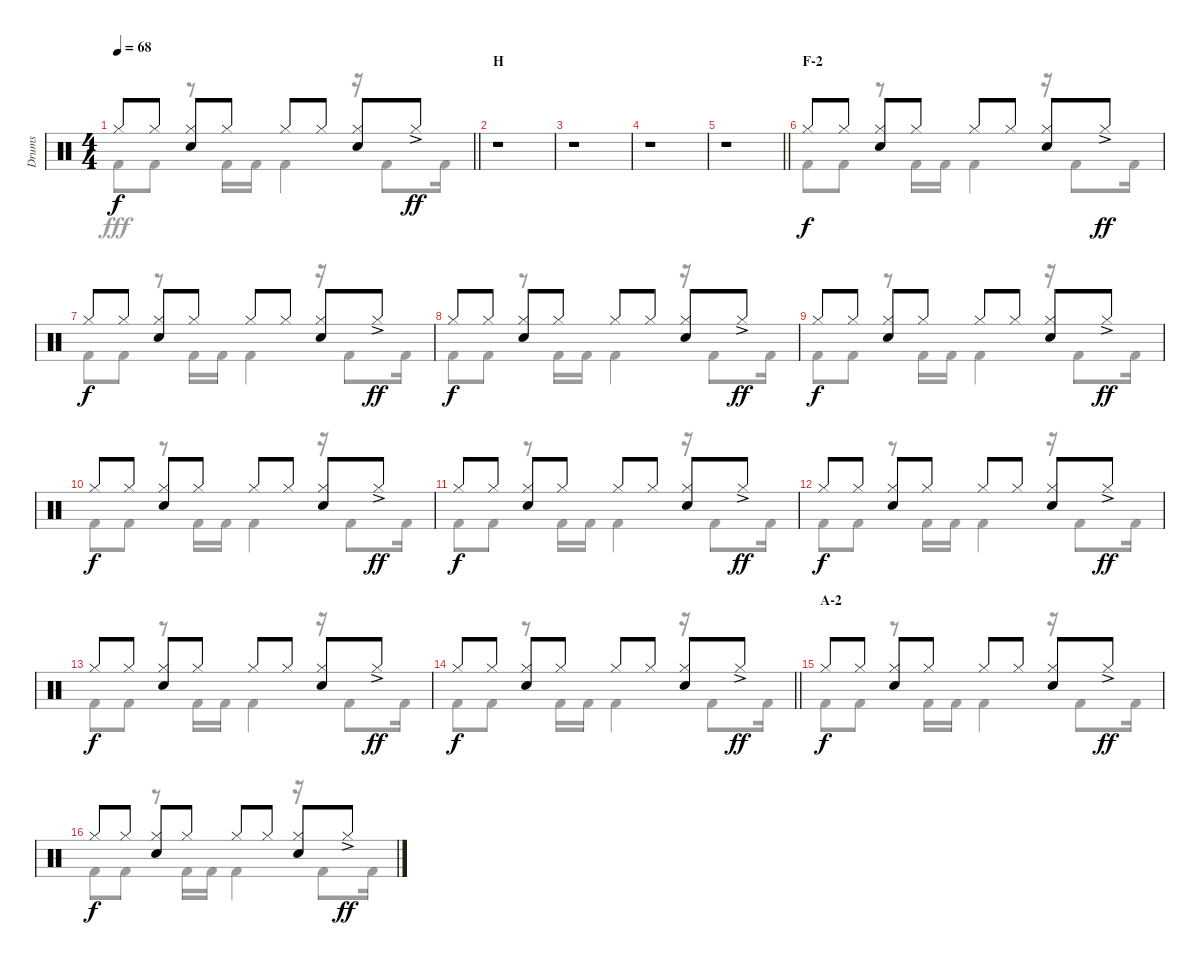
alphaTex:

\track ("Drums" "Drums") {instrument percussion}
\staff {score}
\articulation defaults
\voice
\ts (4 4)
\tempo 68
\clef neutral
\barLineRight lightlight
\ks c "Hi-Hat (closed)".8{dy f} "Hi-Hat (closed)".8
("Hi-Hat (closed)" "Snare (hit) 2").8 "Hi-Hat (closed)".8 "Hi-Hat (closed)".8 "Hi-Hat (closed)".8 ("Hi-Hat (closed)" "Snare (hit) 2").8 "Hi-Hat (closed)"{ac}.8{dy ff} |
\section ("" "H")
r.1 |
r.1 |
r.1 |
\barLineRight lightlight
r.1 |
\section ("" "F-2")
"Hi-Hat (closed)".8{dy f} "Hi-Hat (closed)".8 ("Hi-Hat (closed)" "Snare (hit) 2").8 "Hi-Hat (closed)".8 "Hi-Hat (closed)".8 "Hi-Hat (closed)".8 ("Hi-Hat (closed)" "Snare (hit) 2").8 "Hi-Hat (closed)"{ac}.8{dy ff} |
"Hi-Hat (closed)".8{dy f} "Hi-Hat (closed)".8 ("Hi-Hat (closed)" "Snare (hit) 2").8 "Hi-Hat (closed)".8 "Hi-Hat (closed)".8 "Hi-Hat (closed)".8 ("Hi-Hat (closed)" "Snare (hit) 2").8 "Hi-Hat (closed)"{ac}.8{dy ff} |
"Hi-Hat (closed)".8{dy f} "Hi-Hat (closed)".8 ("Hi-Hat (closed)" "Snare (hit) 2").8 "Hi-Hat (closed)".8 "Hi-Hat (closed)".8 "Hi-Hat (closed)".8 ("Hi-Hat (closed)" "Snare (hit) 2").8 "Hi-Hat (closed)"{ac}.8{dy ff} |
"Hi-Hat (closed)".8{dy f} "Hi-Hat (closed)".8 ("Hi-Hat (closed)" "Snare (hit) 2").8 "Hi-Hat (closed)".8 "Hi-Hat (closed)".8 "Hi-Hat (closed)".8 ("Hi-Hat (closed)" "Snare (hit) 2").8 "Hi-Hat (closed)"{ac}.8{dy ff} |
"Hi-Hat (closed)".8{dy f} "Hi-Hat (closed)".8 ("Hi-Hat (closed)" "Snare (hit) 2").8 "Hi-Hat (closed)".8 "Hi-Hat (closed)".8 "Hi-Hat (closed)".8 ("Hi-Hat (closed)" "Snare (hit) 2").8 "Hi-Hat (closed)"{ac}.8{dy ff} |
"Hi-Hat (closed)".8{dy f} "Hi-Hat (closed)".8 ("Hi-Hat (closed)" "Snare (hit) 2").8 "Hi-Hat (closed)".8 "Hi-Hat (closed)".8 "Hi-Hat (closed)".8 ("Hi-Hat (closed)" "Snare (hit) 2").8 "Hi-Hat (closed)"{ac}.8{dy ff} |
"Hi-Hat (closed)".8{dy f} "Hi-Hat (closed)".8 ("Hi-Hat (closed)" "Snare (hit) 2").8 "Hi-Hat (closed)".8 "Hi-Hat (closed)".8 "Hi-Hat (closed)".8 ("Hi-Hat (closed)" "Snare (hit) 2").8 "Hi-Hat (closed)"{ac}.8{dy ff} |
"Hi-Hat (closed)".8{dy f} "Hi-Hat (closed)".8 ("Hi-Hat (closed)" "Snare (hit) 2").8 "Hi-Hat (closed)".8 "Hi-Hat (closed)".8 "Hi-Hat (closed)".8 ("Hi-Hat (closed)" "Snare (hit) 2").8 "Hi-Hat (closed)"{ac}.8{dy ff} |
\barLineRight lightlight "Hi-Hat (closed)".8{dy f} "Hi-Hat (closed)".8
("Hi-Hat (closed)" "Snare (hit) 2").8 "Hi-Hat (closed)".8 "Hi-Hat (closed)".8 "Hi-Hat (closed)".8 ("Hi-Hat (closed)" "Snare (hit) 2").8 "Hi-Hat (closed)"{ac}.8{dy ff} |
\section ("" "A-2")
"Hi-Hat (closed)".8{dy f} "Hi-Hat (closed)".8 ("Hi-Hat (closed)" "Snare (hit) 2").8 "Hi-Hat (closed)".8 "Hi-Hat (closed)".8 "Hi-Hat (closed)".8 ("Hi-Hat (closed)" "Snare (hit) 2").8 "Hi-Hat (closed)"{ac}.8{dy ff} |
"Hi-Hat (closed)".8{dy f} "Hi-Hat (closed)".8 ("Hi-Hat (closed)" "Snare (hit) 2").8 "Hi-Hat (closed)".8 "Hi-Hat (closed)".8 "Hi-Hat (closed)".8 ("Hi-Hat (closed)" "Snare (hit) 2").8 "Hi-Hat (closed)"{ac}.8{dy ff}
\voice
\clef neutral
\ottava regular
\simile none
\barLineRight lightlight
\ks c "Kick (hit) 2".8{dy fff} "Kick (hit) 2".8
r.8 "Kick (hit) 2".16 "Kick (hit) 2".16 "Kick (hit) 2".4 r.16 "Kick (hit) 2".8 "Kick (hit) 2".16 |
|
|
|
\barLineRight lightlight
|
"Kick (hit) 2".8 "Kick (hit) 2".8 r.8 "Kick (hit) 2".16 "Kick (hit) 2".16 "Kick (hit) 2".4 r.16 "Kick (hit) 2".8 "Kick (hit) 2".16 |
"Kick (hit) 2".8 "Kick (hit) 2".8 r.8 "Kick (hit) 2".16 "Kick (hit) 2".16 "Kick (hit) 2".4 r.16 "Kick (hit) 2".8 "Kick (hit) 2".16 |
"Kick (hit) 2".8 "Kick (hit) 2".8 r.8 "Kick (hit) 2".16 "Kick (hit) 2".16 "Kick (hit) 2".4 r.16 "Kick (hit) 2".8 "Kick (hit) 2".16 |
"Kick (hit) 2".8 "Kick (hit) 2".8 r.8 "Kick (hit) 2".16 "Kick (hit) 2".16 "Kick (hit) 2".4 r.16 "Kick (hit) 2".8 "Kick (hit) 2".16 |
"Kick (hit) 2".8 "Kick (hit) 2".8 r.8 "Kick (hit) 2".16 "Kick (hit) 2".16 "Kick (hit) 2".4 r.16 "Kick (hit) 2".8 "Kick (hit) 2".16 |
"Kick (hit) 2".8 "Kick (hit) 2".8 r.8 "Kick (hit) 2".16 "Kick (hit) 2".16 "Kick (hit) 2".4 r.16 "Kick (hit) 2".8 "Kick (hit) 2".16 |
"Kick (hit) 2".8 "Kick (hit) 2".8 r.8 "Kick (hit) 2".16 "Kick (hit) 2".16 "Kick (hit) 2".4 r.16 "Kick (hit) 2".8 "Kick (hit) 2".16 |
"Kick (hit) 2".8 "Kick (hit) 2".8 r.8 "Kick (hit) 2".16 "Kick (hit) 2".16 "Kick (hit) 2".4 r.16 "Kick (hit) 2".8 "Kick (hit) 2".16 |
\barLineRight lightlight "Kick (hit) 2".8 "Kick (hit) 2".8
r.8 "Kick (hit) 2".16 "Kick (hit) 2".16 "Kick (hit) 2".4 r.16 "Kick (hit) 2".8 "Kick (hit) 2".16 |
"Kick (hit) 2".8 "Kick (hit) 2".8 r.8 "Kick (hit) 2".16 "Kick (hit) 2".16 "Kick (hit) 2".4 r.16 "Kick (hit) 2".8 "Kick (hit) 2".16 |
"Kick (hit) 2".8 "Kick (hit) 2".8 r.8 "Kick (hit) 2".16 "Kick (hit) 2".16 "Kick (hit) 2".4 r.16 "Kick (hit) 2".8 "Kick (hit) 2".16
